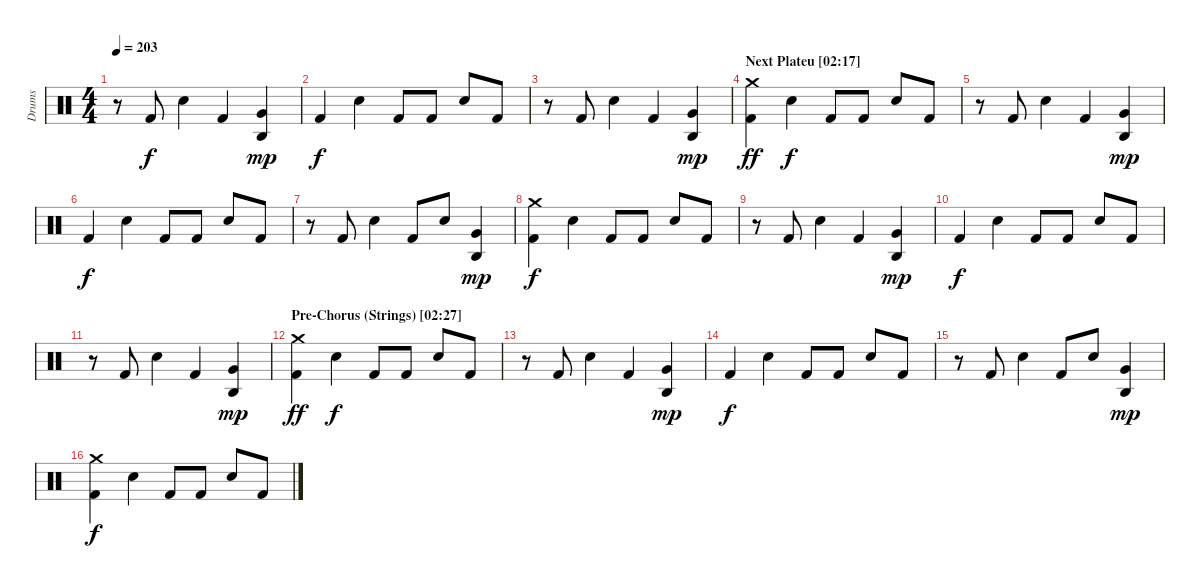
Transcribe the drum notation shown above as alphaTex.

\track ("Drums" "Drums") {instrument percussion}
\staff {score}
\articulation defaults
\ts (4 4)
\tempo 203
\clef neutral
\ks c
r.8{dy f} "Kick (hit) 2".8 "Electric Snare (hit)".4 "Kick (hit) 2".4 ("Agogo high (hit)" "Very Low Tom (hit)").4{dy mp} |
"Kick (hit) 2".4{dy f} "Electric Snare (hit)".4 "Kick (hit) 2".8 "Kick (hit) 2".8 "Electric Snare (hit)".8 "Kick (hit) 2".8 |
r.8 "Kick (hit) 2".8 "Electric Snare (hit)".4 "Kick (hit) 2".4 ("Agogo high (hit)" "Very Low Tom (hit)").4{dy mp} |
\section ("" "Next Plateu [02:17]")
("Crash medium (hit)" "Kick (hit) 2").4{dy ff} "Electric Snare (hit)".4{dy f} "Kick (hit) 2".8 "Kick (hit) 2".8 "Electric Snare (hit)".8 "Kick (hit) 2".8 |
r.8 "Kick (hit) 2".8 "Electric Snare (hit)".4 "Kick (hit) 2".4 ("Agogo high (hit)" "Very Low Tom (hit)").4{dy mp} |
"Kick (hit) 2".4{dy f} "Electric Snare (hit)".4 "Kick (hit) 2".8 "Kick (hit) 2".8 "Electric Snare (hit)".8 "Kick (hit) 2".8 |
r.8 "Kick (hit) 2".8 "Electric Snare (hit)".4 "Kick (hit) 2".8 "Electric Snare (hit)".8 ("Agogo high (hit)" "Very Low Tom (hit)").4{dy mp} |
("Crash medium (hit)" "Kick (hit) 2").4{dy f} "Electric Snare (hit)".4 "Kick (hit) 2".8 "Kick (hit) 2".8 "Electric Snare (hit)".8 "Kick (hit) 2".8 |
r.8 "Kick (hit) 2".8 "Electric Snare (hit)".4 "Kick (hit) 2".4 ("Agogo high (hit)" "Very Low Tom (hit)").4{dy mp} |
"Kick (hit) 2".4{dy f} "Electric Snare (hit)".4 "Kick (hit) 2".8 "Kick (hit) 2".8 "Electric Snare (hit)".8 "Kick (hit) 2".8 |
r.8 "Kick (hit) 2".8 "Electric Snare (hit)".4 "Kick (hit) 2".4 ("Agogo high (hit)" "Very Low Tom (hit)").4{dy mp} |
\section ("" "Pre-Chorus (Strings) [02:27]")
("Crash medium (hit)" "Kick (hit) 2").4{dy ff} "Electric Snare (hit)".4{dy f} "Kick (hit) 2".8 "Kick (hit) 2".8 "Electric Snare (hit)".8 "Kick (hit) 2".8 |
r.8 "Kick (hit) 2".8 "Electric Snare (hit)".4 "Kick (hit) 2".4 ("Agogo high (hit)" "Very Low Tom (hit)").4{dy mp} |
"Kick (hit) 2".4{dy f} "Electric Snare (hit)".4 "Kick (hit) 2".8 "Kick (hit) 2".8 "Electric Snare (hit)".8 "Kick (hit) 2".8 |
r.8 "Kick (hit) 2".8 "Electric Snare (hit)".4 "Kick (hit) 2".8 "Electric Snare (hit)".8 ("Agogo high (hit)" "Very Low Tom (hit)").4{dy mp} |
("Crash medium (hit)" "Kick (hit) 2").4{dy f} "Electric Snare (hit)".4 "Kick (hit) 2".8 "Kick (hit) 2".8 "Electric Snare (hit)".8 "Kick (hit) 2".8
